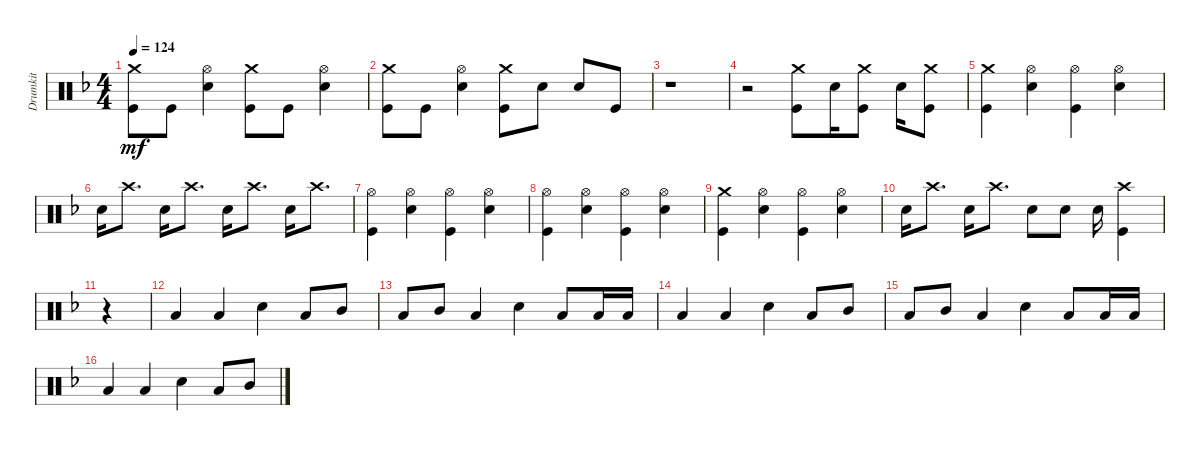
\track ("Drumkit" "Drumkit") {instrument percussion}
\staff {score}
\articulation defaults
\ts (4 4)
\tempo 124
\clef neutral
\ks dminor
("Kick (hit)" "Crash medium (hit)").8{dy mf} "Kick (hit)".8 ("Snare (hit) 2" "Hi-Hat (open)").4 ("Kick (hit)" "Crash medium (hit)").8 "Kick (hit)".8 ("Snare (hit) 2" "Hi-Hat (open)").4 |
("Kick (hit)" "Crash medium (hit)").8 "Kick (hit)".8 ("Snare (hit) 2" "Hi-Hat (open)").4 ("Kick (hit)" "Crash medium (hit)").8 "Snare (hit) 2".8 "Snare (hit) 2".8 "Kick (hit)".8 |
r.1 |
r.2 ("Crash medium (hit)" "Kick (hit)").8 "Snare (hit) 2".16 ("Crash medium (hit)" "Kick (hit)").8 "Snare (hit) 2".16 ("Crash medium (hit)" "Kick (hit)").8 |
("Kick (hit)" "Crash medium (hit)").4 ("Snare (hit) 2" "Hi-Hat (open)").4 ("Kick (hit)" "Hi-Hat (open)").4 ("Snare (hit) 2" "Hi-Hat (open)").4 |
"Snare (hit) 2".16 "Crash high (hit)".8{d} "Snare (hit) 2".16 "Crash high (hit)".8{d} "Snare (hit) 2".16 "Crash high (hit)".8{d} "Snare (hit) 2".16 "Crash high (hit)".8{d} |
("Kick (hit)" "Hi-Hat (open)").4 ("Snare (hit) 2" "Hi-Hat (open)").4 ("Kick (hit)" "Hi-Hat (open)").4 ("Snare (hit) 2" "Hi-Hat (open)").4 |
("Kick (hit)" "Hi-Hat (open)").4 ("Snare (hit) 2" "Hi-Hat (open)").4 ("Kick (hit)" "Hi-Hat (open)").4 ("Snare (hit) 2" "Hi-Hat (open)").4 |
("Kick (hit)" "Crash medium (hit)").4 ("Snare (hit) 2" "Hi-Hat (open)").4 ("Kick (hit)" "Hi-Hat (open)").4 ("Snare (hit) 2" "Hi-Hat (open)").4 |
"Snare (hit) 2".16 "Crash high (hit)".8{d} "Snare (hit) 2".16 "Crash high (hit)".8{d} "Snare (hit) 2".8 "Snare (hit) 2".8 "Snare (hit) 2".16 ("Kick (hit)" "Crash high (hit)").4 |
r.4 |
"Low Tom (hit)".4 "Low Tom (hit)".4 "Snare (hit) 2".4 "Low Tom (hit)".8 "Mid Tom (hit)".8 |
"Low Tom (hit)".8 "Mid Tom (hit)".8 "Low Tom (hit)".4 "Snare (hit) 2".4 "Low Tom (hit)".8 "Low Tom (hit)".16 "Low Tom (hit)".16 |
"Low Tom (hit)".4 "Low Tom (hit)".4 "Snare (hit) 2".4 "Low Tom (hit)".8 "Mid Tom (hit)".8 |
"Low Tom (hit)".8 "Mid Tom (hit)".8 "Low Tom (hit)".4 "Snare (hit) 2".4 "Low Tom (hit)".8 "Low Tom (hit)".16 "Low Tom (hit)".16 |
"Low Tom (hit)".4 "Low Tom (hit)".4 "Snare (hit) 2".4 "Low Tom (hit)".8 "Mid Tom (hit)".8
